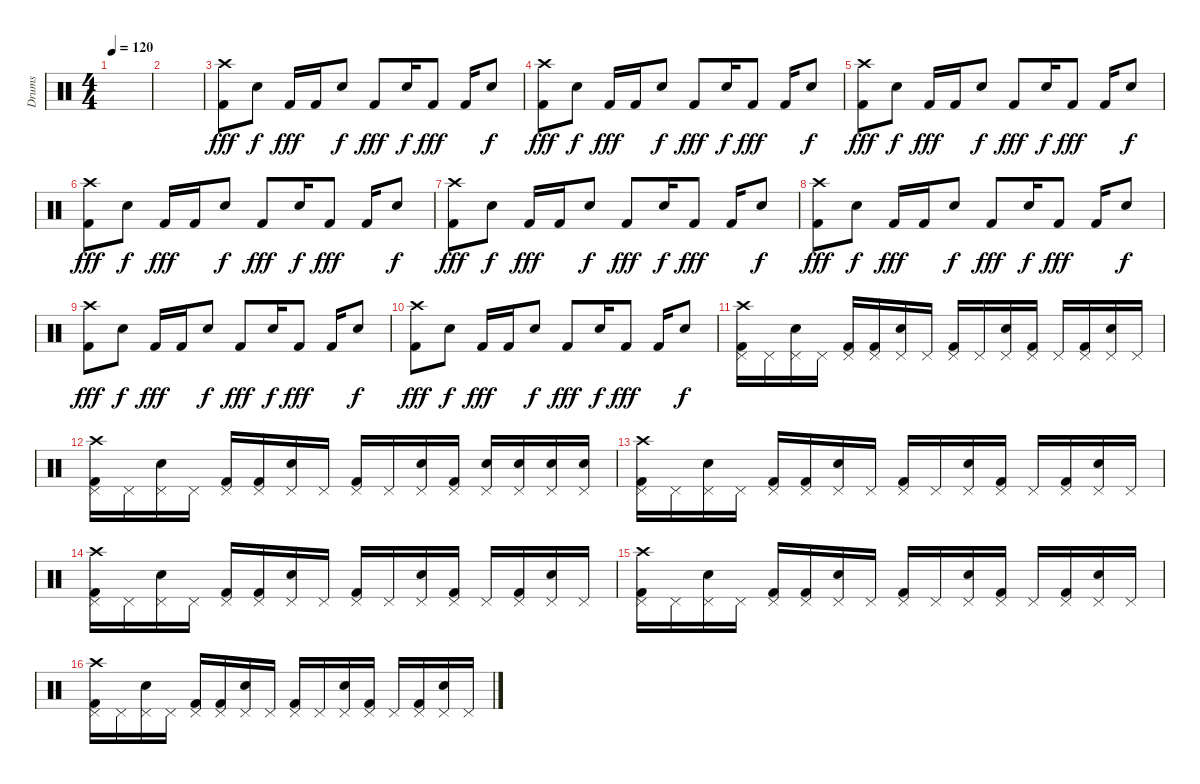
\track ("Drums" "Drums") {instrument percussion}
\staff {score}
\articulation defaults
\ts (4 4)
\tempo 120
\clef neutral
\ks c
|
|
("Crash high (hit)" "Kick (hit) 2").8{dy fff} "Electric Snare (hit)".8{dy f} "Kick (hit) 2".16{dy fff} "Kick (hit) 2".16 "Electric Snare (hit)".8{dy f} "Kick (hit) 2".8{dy fff} "Electric Snare (hit)".16{dy f} "Kick (hit) 2".8{dy fff} "Kick (hit) 2".16 "Electric Snare (hit)".8{dy f} |
("Crash high (hit)" "Kick (hit) 2").8{dy fff} "Electric Snare (hit)".8{dy f} "Kick (hit) 2".16{dy fff} "Kick (hit) 2".16 "Electric Snare (hit)".8{dy f} "Kick (hit) 2".8{dy fff} "Electric Snare (hit)".16{dy f} "Kick (hit) 2".8{dy fff} "Kick (hit) 2".16 "Electric Snare (hit)".8{dy f} |
("Crash high (hit)" "Kick (hit) 2").8{dy fff} "Electric Snare (hit)".8{dy f} "Kick (hit) 2".16{dy fff} "Kick (hit) 2".16 "Electric Snare (hit)".8{dy f} "Kick (hit) 2".8{dy fff} "Electric Snare (hit)".16{dy f} "Kick (hit) 2".8{dy fff} "Kick (hit) 2".16 "Electric Snare (hit)".8{dy f} |
("Crash high (hit)" "Kick (hit) 2").8{dy fff} "Electric Snare (hit)".8{dy f} "Kick (hit) 2".16{dy fff} "Kick (hit) 2".16 "Electric Snare (hit)".8{dy f} "Kick (hit) 2".8{dy fff} "Electric Snare (hit)".16{dy f} "Kick (hit) 2".8{dy fff} "Kick (hit) 2".16 "Electric Snare (hit)".8{dy f} |
("Crash high (hit)" "Kick (hit) 2").8{dy fff} "Electric Snare (hit)".8{dy f} "Kick (hit) 2".16{dy fff} "Kick (hit) 2".16 "Electric Snare (hit)".8{dy f} "Kick (hit) 2".8{dy fff} "Electric Snare (hit)".16{dy f} "Kick (hit) 2".8{dy fff} "Kick (hit) 2".16 "Electric Snare (hit)".8{dy f} |
("Crash high (hit)" "Kick (hit) 2").8{dy fff} "Electric Snare (hit)".8{dy f} "Kick (hit) 2".16{dy fff} "Kick (hit) 2".16 "Electric Snare (hit)".8{dy f} "Kick (hit) 2".8{dy fff} "Electric Snare (hit)".16{dy f} "Kick (hit) 2".8{dy fff} "Kick (hit) 2".16 "Electric Snare (hit)".8{dy f} |
("Crash high (hit)" "Kick (hit) 2").8{dy fff} "Electric Snare (hit)".8{dy f} "Kick (hit) 2".16{dy fff} "Kick (hit) 2".16 "Electric Snare (hit)".8{dy f} "Kick (hit) 2".8{dy fff} "Electric Snare (hit)".16{dy f} "Kick (hit) 2".8{dy fff} "Kick (hit) 2".16 "Electric Snare (hit)".8{dy f} |
("Crash high (hit)" "Kick (hit) 2").8{dy fff} "Electric Snare (hit)".8{dy f} "Kick (hit) 2".16{dy fff} "Kick (hit) 2".16 "Electric Snare (hit)".8{dy f} "Kick (hit) 2".8{dy fff} "Electric Snare (hit)".16{dy f} "Kick (hit) 2".8{dy fff} "Kick (hit) 2".16 "Electric Snare (hit)".8{dy f} |
("Crash high (hit)" "Pedal Hi-Hat (hit)" "Kick (hit) 2").16 "Pedal Hi-Hat (hit)".16 ("Pedal Hi-Hat (hit)" "Electric Snare (hit)").16 "Pedal Hi-Hat (hit)".16 ("Pedal Hi-Hat (hit)" "Kick (hit) 2").16 ("Pedal Hi-Hat (hit)" "Kick (hit) 2").16 ("Pedal Hi-Hat (hit)" "Electric Snare (hit)").16 "Pedal Hi-Hat (hit)".16 ("Pedal Hi-Hat (hit)" "Kick (hit) 2").16 "Pedal Hi-Hat (hit)".16 ("Pedal Hi-Hat (hit)" "Electric Snare (hit)").16 ("Pedal Hi-Hat (hit)" "Kick (hit) 2").16 "Pedal Hi-Hat (hit)".16 ("Pedal Hi-Hat (hit)" "Kick (hit) 2").16 ("Pedal Hi-Hat (hit)" "Electric Snare (hit)").16 "Pedal Hi-Hat (hit)".16 |
("Crash high (hit)" "Pedal Hi-Hat (hit)" "Kick (hit) 2").16 "Pedal Hi-Hat (hit)".16 ("Pedal Hi-Hat (hit)" "Electric Snare (hit)").16 "Pedal Hi-Hat (hit)".16 ("Pedal Hi-Hat (hit)" "Kick (hit) 2").16 ("Pedal Hi-Hat (hit)" "Kick (hit) 2").16 ("Pedal Hi-Hat (hit)" "Electric Snare (hit)").16 "Pedal Hi-Hat (hit)".16 ("Pedal Hi-Hat (hit)" "Kick (hit) 2").16 "Pedal Hi-Hat (hit)".16 ("Pedal Hi-Hat (hit)" "Electric Snare (hit)").16 ("Pedal Hi-Hat (hit)" "Kick (hit) 2").16 ("Pedal Hi-Hat (hit)" "Electric Snare (hit)").16 ("Pedal Hi-Hat (hit)" "Electric Snare (hit)").16 ("Pedal Hi-Hat (hit)" "Electric Snare (hit)").16 ("Pedal Hi-Hat (hit)" "Electric Snare (hit)").16 |
("Crash high (hit)" "Pedal Hi-Hat (hit)" "Kick (hit) 2").16 "Pedal Hi-Hat (hit)".16 ("Pedal Hi-Hat (hit)" "Electric Snare (hit)").16 "Pedal Hi-Hat (hit)".16 ("Pedal Hi-Hat (hit)" "Kick (hit) 2").16 ("Pedal Hi-Hat (hit)" "Kick (hit) 2").16 ("Pedal Hi-Hat (hit)" "Electric Snare (hit)").16 "Pedal Hi-Hat (hit)".16 ("Pedal Hi-Hat (hit)" "Kick (hit) 2").16 "Pedal Hi-Hat (hit)".16 ("Pedal Hi-Hat (hit)" "Electric Snare (hit)").16 ("Pedal Hi-Hat (hit)" "Kick (hit) 2").16 "Pedal Hi-Hat (hit)".16 ("Pedal Hi-Hat (hit)" "Kick (hit) 2").16 ("Pedal Hi-Hat (hit)" "Electric Snare (hit)").16 "Pedal Hi-Hat (hit)".16 |
("Crash high (hit)" "Pedal Hi-Hat (hit)" "Kick (hit) 2").16 "Pedal Hi-Hat (hit)".16 ("Pedal Hi-Hat (hit)" "Electric Snare (hit)").16 "Pedal Hi-Hat (hit)".16 ("Pedal Hi-Hat (hit)" "Kick (hit) 2").16 ("Pedal Hi-Hat (hit)" "Kick (hit) 2").16 ("Pedal Hi-Hat (hit)" "Electric Snare (hit)").16 "Pedal Hi-Hat (hit)".16 ("Pedal Hi-Hat (hit)" "Kick (hit) 2").16 "Pedal Hi-Hat (hit)".16 ("Pedal Hi-Hat (hit)" "Electric Snare (hit)").16 ("Pedal Hi-Hat (hit)" "Kick (hit) 2").16 "Pedal Hi-Hat (hit)".16 ("Pedal Hi-Hat (hit)" "Kick (hit) 2").16 ("Pedal Hi-Hat (hit)" "Electric Snare (hit)").16 "Pedal Hi-Hat (hit)".16 |
("Crash high (hit)" "Pedal Hi-Hat (hit)" "Kick (hit) 2").16 "Pedal Hi-Hat (hit)".16 ("Pedal Hi-Hat (hit)" "Electric Snare (hit)").16 "Pedal Hi-Hat (hit)".16 ("Pedal Hi-Hat (hit)" "Kick (hit) 2").16 ("Pedal Hi-Hat (hit)" "Kick (hit) 2").16 ("Pedal Hi-Hat (hit)" "Electric Snare (hit)").16 "Pedal Hi-Hat (hit)".16 ("Pedal Hi-Hat (hit)" "Kick (hit) 2").16 "Pedal Hi-Hat (hit)".16 ("Pedal Hi-Hat (hit)" "Electric Snare (hit)").16 ("Pedal Hi-Hat (hit)" "Kick (hit) 2").16 "Pedal Hi-Hat (hit)".16 ("Pedal Hi-Hat (hit)" "Kick (hit) 2").16 ("Pedal Hi-Hat (hit)" "Electric Snare (hit)").16 "Pedal Hi-Hat (hit)".16 |
("Crash high (hit)" "Pedal Hi-Hat (hit)" "Kick (hit) 2").16 "Pedal Hi-Hat (hit)".16 ("Pedal Hi-Hat (hit)" "Electric Snare (hit)").16 "Pedal Hi-Hat (hit)".16 ("Pedal Hi-Hat (hit)" "Kick (hit) 2").16 ("Pedal Hi-Hat (hit)" "Kick (hit) 2").16 ("Pedal Hi-Hat (hit)" "Electric Snare (hit)").16 "Pedal Hi-Hat (hit)".16 ("Pedal Hi-Hat (hit)" "Kick (hit) 2").16 "Pedal Hi-Hat (hit)".16 ("Pedal Hi-Hat (hit)" "Electric Snare (hit)").16 ("Pedal Hi-Hat (hit)" "Kick (hit) 2").16 "Pedal Hi-Hat (hit)".16 ("Pedal Hi-Hat (hit)" "Kick (hit) 2").16 ("Pedal Hi-Hat (hit)" "Electric Snare (hit)").16 "Pedal Hi-Hat (hit)".16
